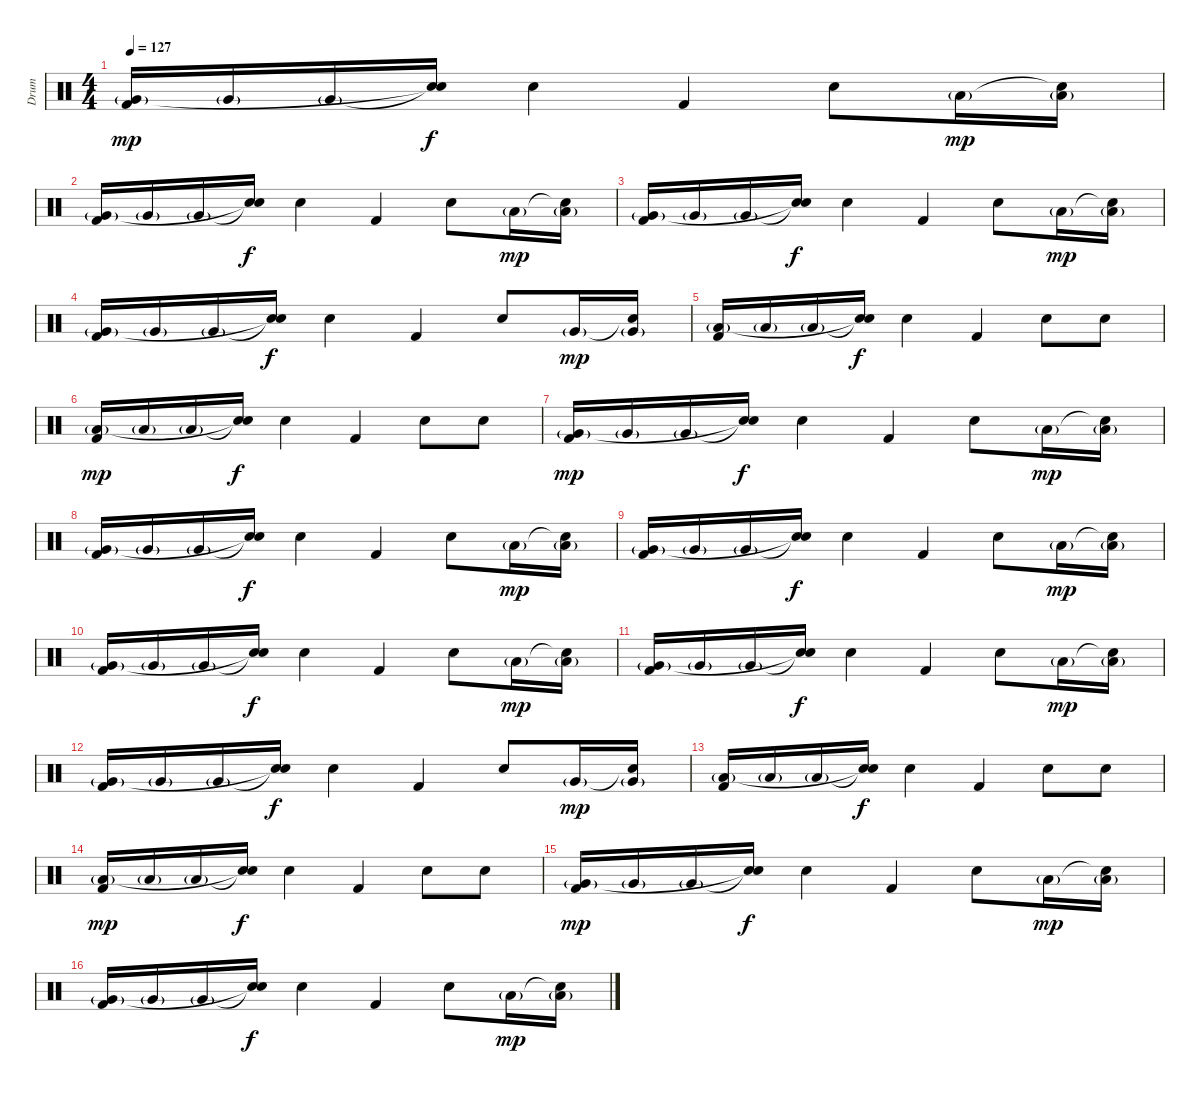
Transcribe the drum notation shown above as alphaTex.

\track ("Drum" "Drum") {instrument percussion}
\staff {score}
\articulation defaults
\ts (4 4)
\tempo 127
\clef neutral
\ks c
("Kick (hit) 2" "Very Low Tom (hit)"{g}).16{dy mp} "Very Low Tom (hit)"{g}.16 "Very Low Tom (hit)"{g}.16 ("Snare (hit)"{t} "Snare (hit)"{t}).16{dy f} "Electric Snare (hit)".4 "Kick (hit) 2".4 "Electric Snare (hit)".8 "Low Tom (hit)"{g}.16{dy mp} ("Snare (hit)"{t} "Low Tom (hit)"{g}).16 |
("Kick (hit) 2" "Very Low Tom (hit)"{g}).16 "Very Low Tom (hit)"{g}.16 "Very Low Tom (hit)"{g}.16 ("Snare (hit)"{t} "Snare (hit)"{t}).16{dy f} "Electric Snare (hit)".4 "Kick (hit) 2".4 "Electric Snare (hit)".8 "Low Tom (hit)"{g}.16{dy mp} ("Snare (hit)"{t} "Low Tom (hit)"{g}).16 |
("Kick (hit) 2" "Very Low Tom (hit)"{g}).16 "Very Low Tom (hit)"{g}.16 "Very Low Tom (hit)"{g}.16 ("Snare (hit)"{t} "Snare (hit)"{t}).16{dy f} "Electric Snare (hit)".4 "Kick (hit) 2".4 "Electric Snare (hit)".8 "Low Tom (hit)"{g}.16{dy mp} ("Snare (hit)"{t} "Low Tom (hit)"{g}).16 |
("Kick (hit) 2" "Very Low Tom (hit)"{g}).16 "Very Low Tom (hit)"{g}.16 "Very Low Tom (hit)"{g}.16 ("Snare (hit)"{t} "Snare (hit)"{t}).16{dy f} "Electric Snare (hit)".4 "Kick (hit) 2".4 "Electric Snare (hit)".8 "Very Low Tom (hit)"{g}.16{dy mp} ("Snare (hit)"{t} "Very Low Tom (hit)"{g}).16 |
("Kick (hit) 2" "Low Floor Tom (hit)"{g}).16 "Low Floor Tom (hit)"{g}.16 "Low Floor Tom (hit)"{g}.16 ("Snare (hit)"{t} "Snare (hit)"{t}).16{dy f} "Electric Snare (hit)".4 "Kick (hit) 2".4 "Electric Snare (hit)".8 "Electric Snare (hit)".8 |
("Kick (hit) 2" "Low Floor Tom (hit)"{g}).16{dy mp} "Low Floor Tom (hit)"{g}.16 "Low Floor Tom (hit)"{g}.16 ("Snare (hit)"{t} "Snare (hit)"{t}).16{dy f} "Electric Snare (hit)".4 "Kick (hit) 2".4 "Electric Snare (hit)".8 "Electric Snare (hit)".8 |
("Kick (hit) 2" "Very Low Tom (hit)"{g}).16{dy mp} "Very Low Tom (hit)"{g}.16 "Very Low Tom (hit)"{g}.16 ("Snare (hit)"{t} "Snare (hit)"{t}).16{dy f} "Electric Snare (hit)".4 "Kick (hit) 2".4 "Electric Snare (hit)".8 "Low Tom (hit)"{g}.16{dy mp} ("Snare (hit)"{t} "Low Tom (hit)"{g}).16 |
("Kick (hit) 2" "Very Low Tom (hit)"{g}).16 "Very Low Tom (hit)"{g}.16 "Very Low Tom (hit)"{g}.16 ("Snare (hit)"{t} "Snare (hit)"{t}).16{dy f} "Electric Snare (hit)".4 "Kick (hit) 2".4 "Electric Snare (hit)".8 "Low Tom (hit)"{g}.16{dy mp} ("Snare (hit)"{t} "Low Tom (hit)"{g}).16 |
("Kick (hit) 2" "Very Low Tom (hit)"{g}).16 "Very Low Tom (hit)"{g}.16 "Very Low Tom (hit)"{g}.16 ("Snare (hit)"{t} "Snare (hit)"{t}).16{dy f} "Electric Snare (hit)".4 "Kick (hit) 2".4 "Electric Snare (hit)".8 "Low Tom (hit)"{g}.16{dy mp} ("Snare (hit)"{t} "Low Tom (hit)"{g}).16 |
("Kick (hit) 2" "Very Low Tom (hit)"{g}).16 "Very Low Tom (hit)"{g}.16 "Very Low Tom (hit)"{g}.16 ("Snare (hit)"{t} "Snare (hit)"{t}).16{dy f} "Electric Snare (hit)".4 "Kick (hit) 2".4 "Electric Snare (hit)".8 "Low Tom (hit)"{g}.16{dy mp} ("Snare (hit)"{t} "Low Tom (hit)"{g}).16 |
("Kick (hit) 2" "Very Low Tom (hit)"{g}).16 "Very Low Tom (hit)"{g}.16 "Very Low Tom (hit)"{g}.16 ("Snare (hit)"{t} "Snare (hit)"{t}).16{dy f} "Electric Snare (hit)".4 "Kick (hit) 2".4 "Electric Snare (hit)".8 "Low Tom (hit)"{g}.16{dy mp} ("Snare (hit)"{t} "Low Tom (hit)"{g}).16 |
("Kick (hit) 2" "Very Low Tom (hit)"{g}).16 "Very Low Tom (hit)"{g}.16 "Very Low Tom (hit)"{g}.16 ("Snare (hit)"{t} "Snare (hit)"{t}).16{dy f} "Electric Snare (hit)".4 "Kick (hit) 2".4 "Electric Snare (hit)".8 "Very Low Tom (hit)"{g}.16{dy mp} ("Snare (hit)"{t} "Very Low Tom (hit)"{g}).16 |
("Kick (hit) 2" "Low Floor Tom (hit)"{g}).16 "Low Floor Tom (hit)"{g}.16 "Low Floor Tom (hit)"{g}.16 ("Snare (hit)"{t} "Snare (hit)"{t}).16{dy f} "Electric Snare (hit)".4 "Kick (hit) 2".4 "Electric Snare (hit)".8 "Electric Snare (hit)".8 |
("Kick (hit) 2" "Low Floor Tom (hit)"{g}).16{dy mp} "Low Floor Tom (hit)"{g}.16 "Low Floor Tom (hit)"{g}.16 ("Snare (hit)"{t} "Snare (hit)"{t}).16{dy f} "Electric Snare (hit)".4 "Kick (hit) 2".4 "Electric Snare (hit)".8 "Electric Snare (hit)".8 |
("Kick (hit) 2" "Very Low Tom (hit)"{g}).16{dy mp} "Very Low Tom (hit)"{g}.16 "Very Low Tom (hit)"{g}.16 ("Snare (hit)"{t} "Snare (hit)"{t}).16{dy f} "Electric Snare (hit)".4 "Kick (hit) 2".4 "Electric Snare (hit)".8 "Low Tom (hit)"{g}.16{dy mp} ("Snare (hit)"{t} "Low Tom (hit)"{g}).16 |
("Kick (hit) 2" "Very Low Tom (hit)"{g}).16 "Very Low Tom (hit)"{g}.16 "Very Low Tom (hit)"{g}.16 ("Snare (hit)"{t} "Snare (hit)"{t}).16{dy f} "Electric Snare (hit)".4 "Kick (hit) 2".4 "Electric Snare (hit)".8 "Low Tom (hit)"{g}.16{dy mp} ("Snare (hit)"{t} "Low Tom (hit)"{g}).16
